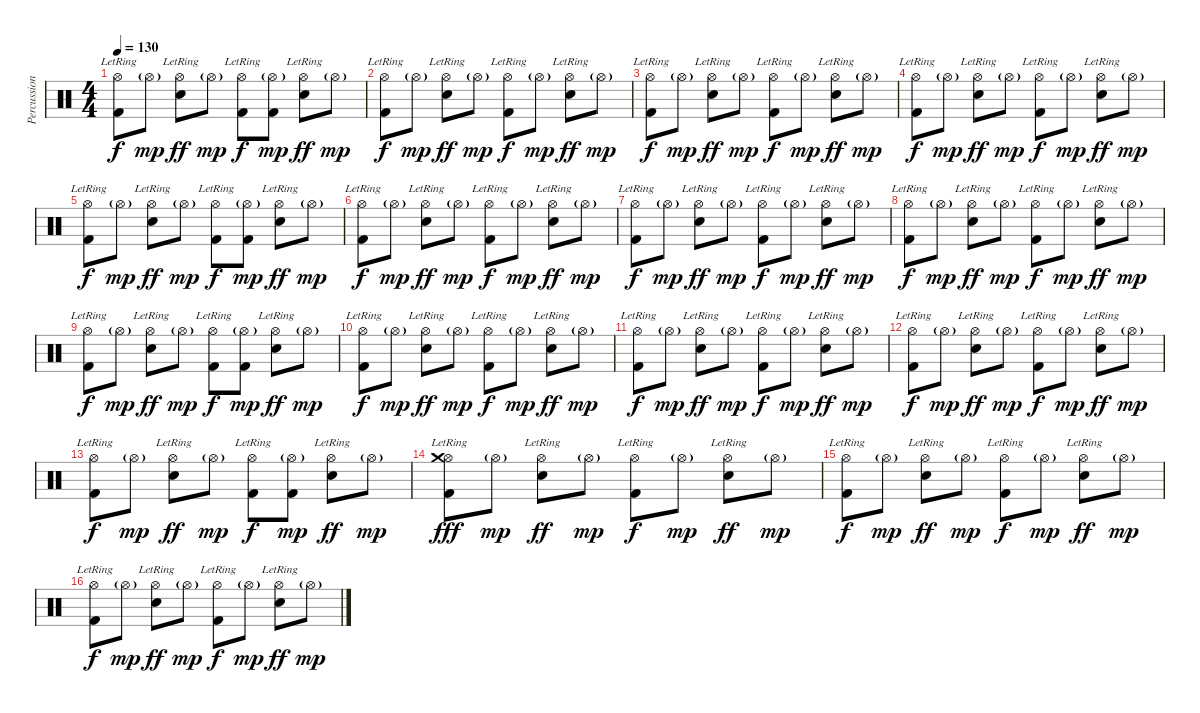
\track ("Percussion" "Percussion") {instrument percussion}
\staff {score}
\articulation defaults
\ts (4 4)
\tempo 130
\clef neutral
\ks c
("Hi-Hat (open)"{lr} "Kick (hit) 2").8{dy f} "Hi-Hat (open)"{g}.8{dy mp} ("Hi-Hat (open)"{lr} "Snare (hit) 2").8{dy ff} "Hi-Hat (open)"{g}.8{dy mp} ("Hi-Hat (open)"{lr} "Kick (hit) 2").8{dy f} ("Hi-Hat (open)"{g} "Kick (hit) 2").8{dy mp} ("Hi-Hat (open)"{lr} "Snare (hit) 2").8{dy ff} "Hi-Hat (open)"{g}.8{dy mp} |
("Hi-Hat (open)"{lr} "Kick (hit) 2").8{dy f} "Hi-Hat (open)"{g}.8{dy mp} ("Hi-Hat (open)"{lr} "Snare (hit) 2").8{dy ff} "Hi-Hat (open)"{g}.8{dy mp} ("Hi-Hat (open)"{lr} "Kick (hit) 2").8{dy f} "Hi-Hat (open)"{g}.8{dy mp} ("Hi-Hat (open)"{lr} "Snare (hit) 2").8{dy ff} "Hi-Hat (open)"{g}.8{dy mp} |
("Hi-Hat (open)"{lr} "Kick (hit) 2").8{dy f} "Hi-Hat (open)"{g}.8{dy mp} ("Hi-Hat (open)"{lr} "Snare (hit) 2").8{dy ff} "Hi-Hat (open)"{g}.8{dy mp} ("Hi-Hat (open)"{lr} "Kick (hit) 2").8{dy f} "Hi-Hat (open)"{g}.8{dy mp} ("Hi-Hat (open)"{lr} "Snare (hit) 2").8{dy ff} "Hi-Hat (open)"{g}.8{dy mp} |
("Hi-Hat (open)"{lr} "Kick (hit) 2").8{dy f} "Hi-Hat (open)"{g}.8{dy mp} ("Hi-Hat (open)"{lr} "Snare (hit) 2").8{dy ff} "Hi-Hat (open)"{g}.8{dy mp} ("Hi-Hat (open)"{lr} "Kick (hit) 2").8{dy f} "Hi-Hat (open)"{g}.8{dy mp} ("Hi-Hat (open)"{lr} "Snare (hit) 2").8{dy ff} "Hi-Hat (open)"{g}.8{dy mp} |
("Hi-Hat (open)"{lr} "Kick (hit) 2").8{dy f} "Hi-Hat (open)"{g}.8{dy mp} ("Hi-Hat (open)"{lr} "Snare (hit) 2").8{dy ff} "Hi-Hat (open)"{g}.8{dy mp} ("Hi-Hat (open)"{lr} "Kick (hit) 2").8{dy f} ("Hi-Hat (open)"{g} "Kick (hit) 2").8{dy mp} ("Hi-Hat (open)"{lr} "Snare (hit) 2").8{dy ff} "Hi-Hat (open)"{g}.8{dy mp} |
("Hi-Hat (open)"{lr} "Kick (hit) 2").8{dy f} "Hi-Hat (open)"{g}.8{dy mp} ("Hi-Hat (open)"{lr} "Snare (hit) 2").8{dy ff} "Hi-Hat (open)"{g}.8{dy mp} ("Hi-Hat (open)"{lr} "Kick (hit) 2").8{dy f} "Hi-Hat (open)"{g}.8{dy mp} ("Hi-Hat (open)"{lr} "Snare (hit) 2").8{dy ff} "Hi-Hat (open)"{g}.8{dy mp} |
("Hi-Hat (open)"{lr} "Kick (hit) 2").8{dy f} "Hi-Hat (open)"{g}.8{dy mp} ("Hi-Hat (open)"{lr} "Snare (hit) 2").8{dy ff} "Hi-Hat (open)"{g}.8{dy mp} ("Hi-Hat (open)"{lr} "Kick (hit) 2").8{dy f} "Hi-Hat (open)"{g}.8{dy mp} ("Hi-Hat (open)"{lr} "Snare (hit) 2").8{dy ff} "Hi-Hat (open)"{g}.8{dy mp} |
("Hi-Hat (open)"{lr} "Kick (hit) 2").8{dy f} "Hi-Hat (open)"{g}.8{dy mp} ("Hi-Hat (open)"{lr} "Snare (hit) 2").8{dy ff} "Hi-Hat (open)"{g}.8{dy mp} ("Hi-Hat (open)"{lr} "Kick (hit) 2").8{dy f} "Hi-Hat (open)"{g}.8{dy mp} ("Hi-Hat (open)"{lr} "Snare (hit) 2").8{dy ff} "Hi-Hat (open)"{g}.8{dy mp} |
("Hi-Hat (open)"{lr} "Kick (hit) 2").8{dy f} "Hi-Hat (open)"{g}.8{dy mp} ("Hi-Hat (open)"{lr} "Snare (hit) 2").8{dy ff} "Hi-Hat (open)"{g}.8{dy mp} ("Hi-Hat (open)"{lr} "Kick (hit) 2").8{dy f} ("Hi-Hat (open)"{g} "Kick (hit) 2").8{dy mp} ("Hi-Hat (open)"{lr} "Snare (hit) 2").8{dy ff} "Hi-Hat (open)"{g}.8{dy mp} |
("Hi-Hat (open)"{lr} "Kick (hit) 2").8{dy f} "Hi-Hat (open)"{g}.8{dy mp} ("Hi-Hat (open)"{lr} "Snare (hit) 2").8{dy ff} "Hi-Hat (open)"{g}.8{dy mp} ("Hi-Hat (open)"{lr} "Kick (hit) 2").8{dy f} "Hi-Hat (open)"{g}.8{dy mp} ("Hi-Hat (open)"{lr} "Snare (hit) 2").8{dy ff} "Hi-Hat (open)"{g}.8{dy mp} |
("Hi-Hat (open)"{lr} "Kick (hit) 2").8{dy f} "Hi-Hat (open)"{g}.8{dy mp} ("Hi-Hat (open)"{lr} "Snare (hit) 2").8{dy ff} "Hi-Hat (open)"{g}.8{dy mp} ("Hi-Hat (open)"{lr} "Kick (hit) 2").8{dy f} "Hi-Hat (open)"{g}.8{dy mp} ("Hi-Hat (open)"{lr} "Snare (hit) 2").8{dy ff} "Hi-Hat (open)"{g}.8{dy mp} |
("Hi-Hat (open)"{lr} "Kick (hit) 2").8{dy f} "Hi-Hat (open)"{g}.8{dy mp} ("Hi-Hat (open)"{lr} "Snare (hit) 2").8{dy ff} "Hi-Hat (open)"{g}.8{dy mp} ("Hi-Hat (open)"{lr} "Kick (hit) 2").8{dy f} "Hi-Hat (open)"{g}.8{dy mp} ("Hi-Hat (open)"{lr} "Snare (hit) 2").8{dy ff} "Hi-Hat (open)"{g}.8{dy mp} |
("Hi-Hat (open)"{lr} "Kick (hit) 2").8{dy f} "Hi-Hat (open)"{g}.8{dy mp} ("Hi-Hat (open)"{lr} "Snare (hit) 2").8{dy ff} "Hi-Hat (open)"{g}.8{dy mp} ("Hi-Hat (open)"{lr} "Kick (hit) 2").8{dy f} ("Hi-Hat (open)"{g} "Kick (hit) 2").8{dy mp} ("Hi-Hat (open)"{lr} "Snare (hit) 2").8{dy ff} "Hi-Hat (open)"{g}.8{dy mp} |
("Hi-Hat (open)"{lr} "Crash medium (hit)"{lr} "Kick (hit) 2").8{dy fff} "Hi-Hat (open)"{g}.8{dy mp} ("Hi-Hat (open)"{lr} "Snare (hit) 2").8{dy ff} "Hi-Hat (open)"{g}.8{dy mp} ("Hi-Hat (open)"{lr} "Kick (hit) 2").8{dy f} "Hi-Hat (open)"{g}.8{dy mp} ("Hi-Hat (open)"{lr} "Snare (hit) 2").8{dy ff} "Hi-Hat (open)"{g}.8{dy mp} |
("Hi-Hat (open)"{lr} "Kick (hit) 2").8{dy f} "Hi-Hat (open)"{g}.8{dy mp} ("Hi-Hat (open)"{lr} "Snare (hit) 2").8{dy ff} "Hi-Hat (open)"{g}.8{dy mp} ("Hi-Hat (open)"{lr} "Kick (hit) 2").8{dy f} "Hi-Hat (open)"{g}.8{dy mp} ("Hi-Hat (open)"{lr} "Snare (hit) 2").8{dy ff} "Hi-Hat (open)"{g}.8{dy mp} |
("Hi-Hat (open)"{lr} "Kick (hit) 2").8{dy f} "Hi-Hat (open)"{g}.8{dy mp} ("Hi-Hat (open)"{lr} "Snare (hit) 2").8{dy ff} "Hi-Hat (open)"{g}.8{dy mp} ("Hi-Hat (open)"{lr} "Kick (hit) 2").8{dy f} "Hi-Hat (open)"{g}.8{dy mp} ("Hi-Hat (open)"{lr} "Snare (hit) 2").8{dy ff} "Hi-Hat (open)"{g}.8{dy mp}
